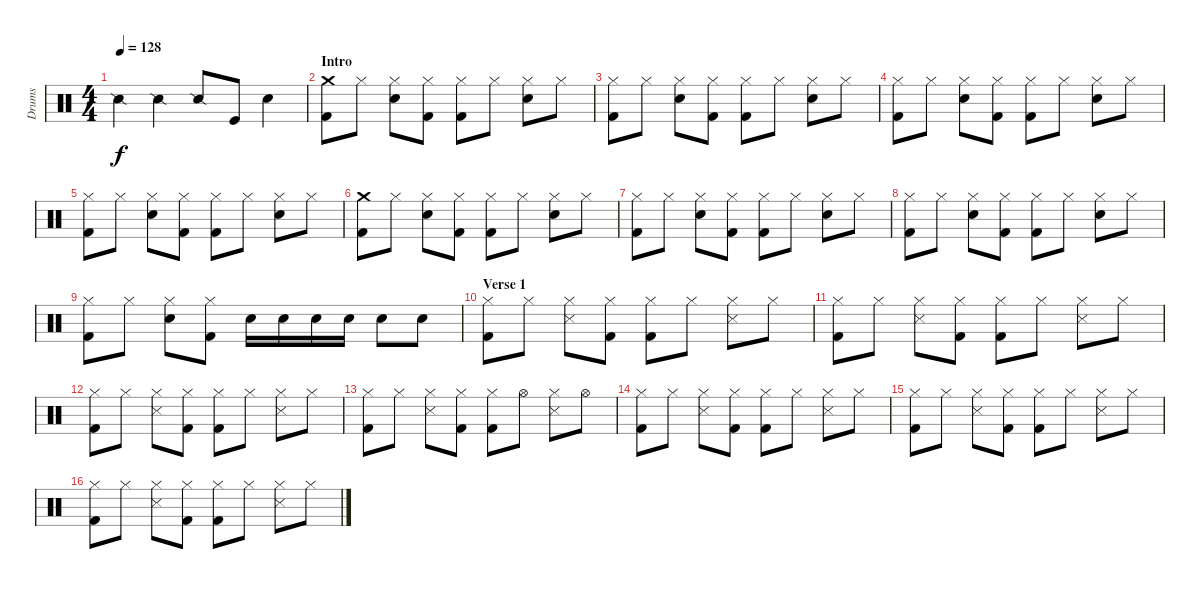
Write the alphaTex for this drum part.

\track ("Drums" "Drums") {instrument percussion}
\staff {score}
\articulation defaults
\ts (4 4)
\tempo 128
\clef neutral
\ks c "Snare (side stick) 2".4{dy f} "Snare (side stick) 2".4 "Snare (side stick) 2".8 "Kick (hit)".8 "Electric Snare (hit)".4
|
\section ("" "Intro")
("Kick (hit) 2" "Crash medium (hit)").8 "Hi-Hat (closed)".8 ("Hi-Hat (closed)" "Electric Snare (hit)").8 ("Kick (hit) 2" "Hi-Hat (closed)").8 ("Hi-Hat (closed)" "Kick (hit) 2").8 "Hi-Hat (closed)".8 ("Hi-Hat (closed)" "Electric Snare (hit)").8 "Hi-Hat (closed)".8 |
("Hi-Hat (closed)" "Kick (hit) 2").8 "Hi-Hat (closed)".8 ("Hi-Hat (closed)" "Electric Snare (hit)").8 ("Kick (hit) 2" "Hi-Hat (closed)").8 ("Hi-Hat (closed)" "Kick (hit) 2").8 "Hi-Hat (closed)".8 ("Hi-Hat (closed)" "Electric Snare (hit)").8 "Hi-Hat (closed)".8 |
("Hi-Hat (closed)" "Kick (hit) 2").8 "Hi-Hat (closed)".8 ("Hi-Hat (closed)" "Electric Snare (hit)").8 ("Kick (hit) 2" "Hi-Hat (closed)").8 ("Hi-Hat (closed)" "Kick (hit) 2").8 "Hi-Hat (closed)".8 ("Hi-Hat (closed)" "Electric Snare (hit)").8 "Hi-Hat (closed)".8 |
("Hi-Hat (closed)" "Kick (hit) 2").8 "Hi-Hat (closed)".8 ("Hi-Hat (closed)" "Electric Snare (hit)").8 ("Kick (hit) 2" "Hi-Hat (closed)").8 ("Hi-Hat (closed)" "Kick (hit) 2").8 "Hi-Hat (closed)".8 ("Hi-Hat (closed)" "Electric Snare (hit)").8 "Hi-Hat (closed)".8 |
("Kick (hit) 2" "Crash medium (hit)").8 "Hi-Hat (closed)".8 ("Hi-Hat (closed)" "Electric Snare (hit)").8 ("Kick (hit) 2" "Hi-Hat (closed)").8 ("Hi-Hat (closed)" "Kick (hit) 2").8 "Hi-Hat (closed)".8 ("Hi-Hat (closed)" "Electric Snare (hit)").8 "Hi-Hat (closed)".8 |
("Hi-Hat (closed)" "Kick (hit) 2").8 "Hi-Hat (closed)".8 ("Hi-Hat (closed)" "Electric Snare (hit)").8 ("Kick (hit) 2" "Hi-Hat (closed)").8 ("Hi-Hat (closed)" "Kick (hit) 2").8 "Hi-Hat (closed)".8 ("Hi-Hat (closed)" "Electric Snare (hit)").8 "Hi-Hat (closed)".8 |
("Hi-Hat (closed)" "Kick (hit) 2").8 "Hi-Hat (closed)".8 ("Hi-Hat (closed)" "Electric Snare (hit)").8 ("Kick (hit) 2" "Hi-Hat (closed)").8 ("Hi-Hat (closed)" "Kick (hit) 2").8 "Hi-Hat (closed)".8 ("Hi-Hat (closed)" "Electric Snare (hit)").8 "Hi-Hat (closed)".8 |
("Kick (hit) 2" "Hi-Hat (closed)").8 "Hi-Hat (closed)".8 ("Electric Snare (hit)" "Hi-Hat (closed)").8 ("Kick (hit) 2" "Hi-Hat (closed)").8 "Electric Snare (hit)".16 "Electric Snare (hit)".16 "Electric Snare (hit)".16 "Electric Snare (hit)".16 "Electric Snare (hit)".8 "Electric Snare (hit)".8 |
\section ("" "Verse 1")
("Hi-Hat (closed)" "Kick (hit) 2").8 "Hi-Hat (closed)".8 ("Hi-Hat (closed)" "Snare (side stick) 3").8 ("Kick (hit) 2" "Hi-Hat (closed)").8 ("Hi-Hat (closed)" "Kick (hit) 2").8 "Hi-Hat (closed)".8 ("Hi-Hat (closed)" "Snare (side stick) 3").8 "Hi-Hat (closed)".8 |
("Hi-Hat (closed)" "Kick (hit) 2").8 "Hi-Hat (closed)".8 ("Hi-Hat (closed)" "Snare (side stick) 3").8 ("Kick (hit) 2" "Hi-Hat (closed)").8 ("Hi-Hat (closed)" "Kick (hit) 2").8 "Hi-Hat (closed)".8 ("Hi-Hat (closed)" "Snare (side stick) 3").8 "Hi-Hat (closed)".8 |
("Hi-Hat (closed)" "Kick (hit) 2").8 "Hi-Hat (closed)".8 ("Hi-Hat (closed)" "Snare (side stick) 3").8 ("Kick (hit) 2" "Hi-Hat (closed)").8 ("Hi-Hat (closed)" "Kick (hit) 2").8 "Hi-Hat (closed)".8 ("Hi-Hat (closed)" "Snare (side stick) 3").8 "Hi-Hat (closed)".8 |
("Hi-Hat (closed)" "Kick (hit) 2").8 "Hi-Hat (closed)".8 ("Hi-Hat (closed)" "Snare (side stick) 3").8 ("Kick (hit) 2" "Hi-Hat (closed)").8 ("Hi-Hat (closed)" "Kick (hit) 2").8 "Hi-Hat (open)".8 ("Hi-Hat (closed)" "Snare (side stick) 3").8 "Hi-Hat (open)".8 |
("Hi-Hat (closed)" "Kick (hit) 2").8 "Hi-Hat (closed)".8 ("Hi-Hat (closed)" "Snare (side stick) 3").8 ("Kick (hit) 2" "Hi-Hat (closed)").8 ("Hi-Hat (closed)" "Kick (hit) 2").8 "Hi-Hat (closed)".8 ("Hi-Hat (closed)" "Snare (side stick) 3").8 "Hi-Hat (closed)".8 |
("Hi-Hat (closed)" "Kick (hit) 2").8 "Hi-Hat (closed)".8 ("Hi-Hat (closed)" "Snare (side stick) 3").8 ("Kick (hit) 2" "Hi-Hat (closed)").8 ("Hi-Hat (closed)" "Kick (hit) 2").8 "Hi-Hat (closed)".8 ("Hi-Hat (closed)" "Snare (side stick) 3").8 "Hi-Hat (closed)".8 |
("Hi-Hat (closed)" "Kick (hit) 2").8 "Hi-Hat (closed)".8 ("Hi-Hat (closed)" "Snare (side stick) 3").8 ("Kick (hit) 2" "Hi-Hat (closed)").8 ("Hi-Hat (closed)" "Kick (hit) 2").8 "Hi-Hat (closed)".8 ("Hi-Hat (closed)" "Snare (side stick) 3").8 "Hi-Hat (closed)".8
